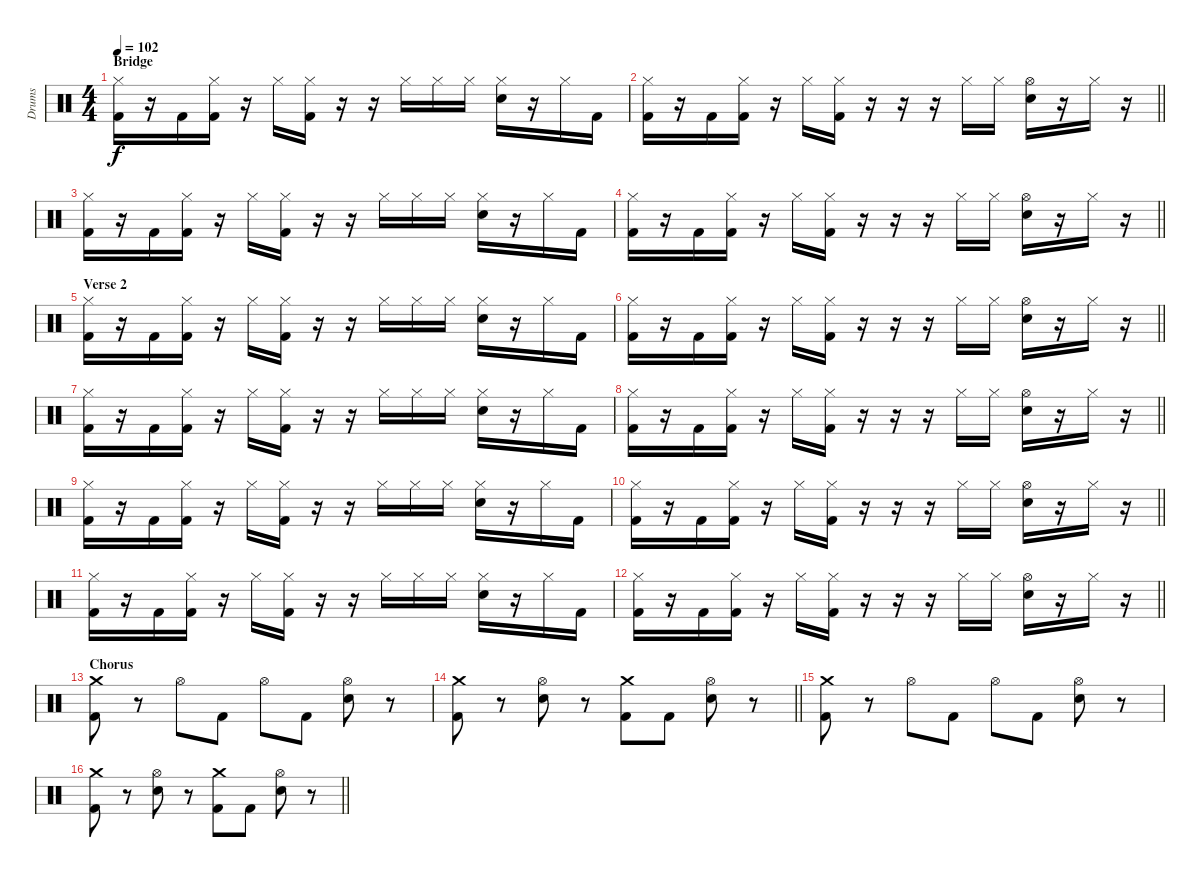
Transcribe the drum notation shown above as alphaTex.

\track ("Drums" "Drums") {instrument percussion}
\staff {score}
\articulation defaults
\ts (4 4)
\section ("" "Bridge")
\tempo 102
\clef neutral
\ks c
("Hi-Hat (closed)" "Kick (hit) 2").16{dy f} r.16 "Kick (hit) 2".16 ("Hi-Hat (closed)" "Kick (hit) 2").16 r.16 "Hi-Hat (closed)".16 ("Hi-Hat (closed)" "Kick (hit) 2").16 r.16 r.16 "Hi-Hat (closed)".16 "Hi-Hat (closed)".16 "Hi-Hat (closed)".16 ("Hi-Hat (closed)" "Electric Snare (hit)").16 r.16 "Hi-Hat (closed)".16 "Kick (hit) 2".16 |
\barLineRight lightlight
("Hi-Hat (closed)" "Kick (hit) 2").16 r.16 "Kick (hit) 2".16 ("Hi-Hat (closed)" "Kick (hit) 2").16 r.16 "Hi-Hat (closed)".16 ("Hi-Hat (closed)" "Kick (hit) 2").16 r.16 r.16 r.16 "Hi-Hat (closed)".16 "Hi-Hat (closed)".16 ("Hi-Hat (open)" "Electric Snare (hit)").16 r.16 "Hi-Hat (closed)".16 r.16 |
("Hi-Hat (closed)" "Kick (hit) 2").16 r.16 "Kick (hit) 2".16 ("Hi-Hat (closed)" "Kick (hit) 2").16 r.16 "Hi-Hat (closed)".16 ("Hi-Hat (closed)" "Kick (hit) 2").16 r.16 r.16 "Hi-Hat (closed)".16 "Hi-Hat (closed)".16 "Hi-Hat (closed)".16 ("Hi-Hat (closed)" "Electric Snare (hit)").16 r.16 "Hi-Hat (closed)".16 "Kick (hit) 2".16 |
\barLineRight lightlight
("Hi-Hat (closed)" "Kick (hit) 2").16 r.16 "Kick (hit) 2".16 ("Hi-Hat (closed)" "Kick (hit) 2").16 r.16 "Hi-Hat (closed)".16 ("Hi-Hat (closed)" "Kick (hit) 2").16 r.16 r.16 r.16 "Hi-Hat (closed)".16 "Hi-Hat (closed)".16 ("Hi-Hat (open)" "Electric Snare (hit)").16 r.16 "Hi-Hat (closed)".16 r.16 |
\section ("" "Verse 2")
("Hi-Hat (closed)" "Kick (hit) 2").16 r.16 "Kick (hit) 2".16 ("Hi-Hat (closed)" "Kick (hit) 2").16 r.16 "Hi-Hat (closed)".16 ("Hi-Hat (closed)" "Kick (hit) 2").16 r.16 r.16 "Hi-Hat (closed)".16 "Hi-Hat (closed)".16 "Hi-Hat (closed)".16 ("Hi-Hat (closed)" "Electric Snare (hit)").16 r.16 "Hi-Hat (closed)".16 "Kick (hit) 2".16 |
\barLineRight lightlight
("Hi-Hat (closed)" "Kick (hit) 2").16 r.16 "Kick (hit) 2".16 ("Hi-Hat (closed)" "Kick (hit) 2").16 r.16 "Hi-Hat (closed)".16 ("Hi-Hat (closed)" "Kick (hit) 2").16 r.16 r.16 r.16 "Hi-Hat (closed)".16 "Hi-Hat (closed)".16 ("Hi-Hat (open)" "Electric Snare (hit)").16 r.16 "Hi-Hat (closed)".16 r.16 |
("Hi-Hat (closed)" "Kick (hit) 2").16 r.16 "Kick (hit) 2".16 ("Hi-Hat (closed)" "Kick (hit) 2").16 r.16 "Hi-Hat (closed)".16 ("Hi-Hat (closed)" "Kick (hit) 2").16 r.16 r.16 "Hi-Hat (closed)".16 "Hi-Hat (closed)".16 "Hi-Hat (closed)".16 ("Hi-Hat (closed)" "Electric Snare (hit)").16 r.16 "Hi-Hat (closed)".16 "Kick (hit) 2".16 |
\barLineRight lightlight
("Hi-Hat (closed)" "Kick (hit) 2").16 r.16 "Kick (hit) 2".16 ("Hi-Hat (closed)" "Kick (hit) 2").16 r.16 "Hi-Hat (closed)".16 ("Hi-Hat (closed)" "Kick (hit) 2").16 r.16 r.16 r.16 "Hi-Hat (closed)".16 "Hi-Hat (closed)".16 ("Hi-Hat (open)" "Electric Snare (hit)").16 r.16 "Hi-Hat (closed)".16 r.16 |
("Hi-Hat (closed)" "Kick (hit) 2").16 r.16 "Kick (hit) 2".16 ("Hi-Hat (closed)" "Kick (hit) 2").16 r.16 "Hi-Hat (closed)".16 ("Hi-Hat (closed)" "Kick (hit) 2").16 r.16 r.16 "Hi-Hat (closed)".16 "Hi-Hat (closed)".16 "Hi-Hat (closed)".16 ("Hi-Hat (closed)" "Electric Snare (hit)").16 r.16 "Hi-Hat (closed)".16 "Kick (hit) 2".16 |
\barLineRight lightlight
("Hi-Hat (closed)" "Kick (hit) 2").16 r.16 "Kick (hit) 2".16 ("Hi-Hat (closed)" "Kick (hit) 2").16 r.16 "Hi-Hat (closed)".16 ("Hi-Hat (closed)" "Kick (hit) 2").16 r.16 r.16 r.16 "Hi-Hat (closed)".16 "Hi-Hat (closed)".16 ("Hi-Hat (open)" "Electric Snare (hit)").16 r.16 "Hi-Hat (closed)".16 r.16 |
("Hi-Hat (closed)" "Kick (hit) 2").16 r.16 "Kick (hit) 2".16 ("Hi-Hat (closed)" "Kick (hit) 2").16 r.16 "Hi-Hat (closed)".16 ("Hi-Hat (closed)" "Kick (hit) 2").16 r.16 r.16 "Hi-Hat (closed)".16 "Hi-Hat (closed)".16 "Hi-Hat (closed)".16 ("Hi-Hat (closed)" "Electric Snare (hit)").16 r.16 "Hi-Hat (closed)".16 "Kick (hit) 2".16 |
\barLineRight lightlight
("Hi-Hat (closed)" "Kick (hit) 2").16 r.16 "Kick (hit) 2".16 ("Hi-Hat (closed)" "Kick (hit) 2").16 r.16 "Hi-Hat (closed)".16 ("Hi-Hat (closed)" "Kick (hit) 2").16 r.16 r.16 r.16 "Hi-Hat (closed)".16 "Hi-Hat (closed)".16 ("Hi-Hat (open)" "Electric Snare (hit)").16 r.16 "Hi-Hat (closed)".16 r.16 |
\section ("" "Chorus")
("Crash medium (hit)" "Kick (hit) 2").8 r.8 "Hi-Hat (open)".8 "Kick (hit) 2".8 "Hi-Hat (open)".8 "Kick (hit) 2".8 ("Hi-Hat (open)" "Electric Snare (hit)").8 r.8 |
\barLineRight lightlight
("Crash medium (hit)" "Kick (hit) 2").8 r.8 ("Hi-Hat (open)" "Electric Snare (hit)").8 r.8 ("Crash medium (hit)" "Kick (hit) 2").8 "Kick (hit) 2".8 ("Hi-Hat (open)" "Electric Snare (hit)").8 r.8 |
("Crash medium (hit)" "Kick (hit) 2").8 r.8 "Hi-Hat (open)".8 "Kick (hit) 2".8 "Hi-Hat (open)".8 "Kick (hit) 2".8 ("Hi-Hat (open)" "Electric Snare (hit)").8 r.8 |
\barLineRight lightlight
("Crash medium (hit)" "Kick (hit) 2").8 r.8 ("Hi-Hat (open)" "Electric Snare (hit)").8 r.8 ("Crash medium (hit)" "Kick (hit) 2").8 "Kick (hit) 2".8 ("Hi-Hat (open)" "Electric Snare (hit)").8 r.8
